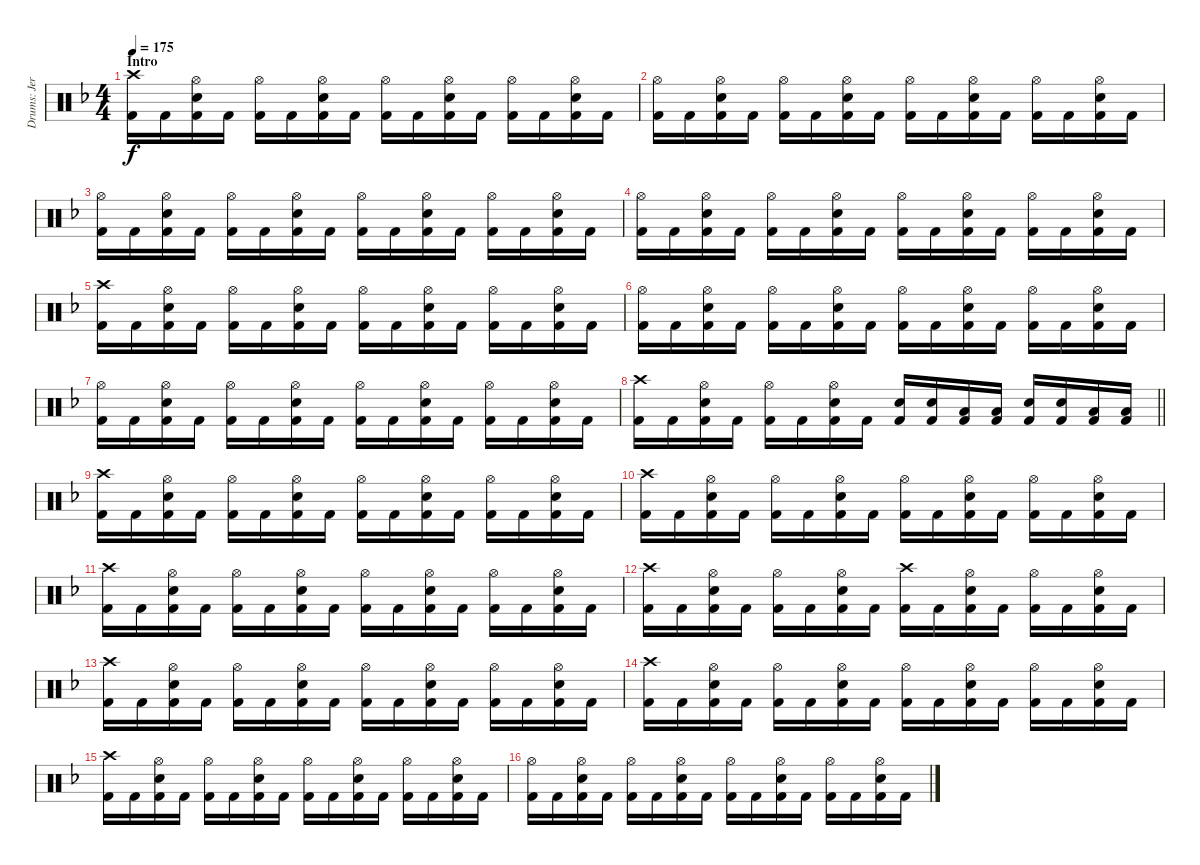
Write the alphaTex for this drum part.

\track ("Drums: Jere Luokkamäki" "Drums: Jer") {instrument percussion}
\staff {score}
\articulation defaults
\ts (4 4)
\section ("" "Intro")
\tempo 175
\clef neutral
\ks dminor
("Crash high (hit)" "Kick (hit) 2").16{dy f} "Kick (hit) 2".16 ("Hi-Hat (open)" "Electric Snare (hit)" "Kick (hit) 2").16 "Kick (hit) 2".16 ("Hi-Hat (open)" "Kick (hit) 2").16 "Kick (hit) 2".16 ("Hi-Hat (open)" "Electric Snare (hit)" "Kick (hit) 2").16 "Kick (hit) 2".16 ("Hi-Hat (open)" "Kick (hit) 2").16 "Kick (hit) 2".16 ("Hi-Hat (open)" "Electric Snare (hit)" "Kick (hit) 2").16 "Kick (hit) 2".16 ("Hi-Hat (open)" "Kick (hit) 2").16 "Kick (hit) 2".16 ("Hi-Hat (open)" "Electric Snare (hit)" "Kick (hit) 2").16 "Kick (hit) 2".16 |
("Hi-Hat (open)" "Kick (hit) 2").16 "Kick (hit) 2".16 ("Hi-Hat (open)" "Electric Snare (hit)" "Kick (hit) 2").16 "Kick (hit) 2".16 ("Hi-Hat (open)" "Kick (hit) 2").16 "Kick (hit) 2".16 ("Hi-Hat (open)" "Electric Snare (hit)" "Kick (hit) 2").16 "Kick (hit) 2".16 ("Hi-Hat (open)" "Kick (hit) 2").16 "Kick (hit) 2".16 ("Hi-Hat (open)" "Electric Snare (hit)" "Kick (hit) 2").16 "Kick (hit) 2".16 ("Hi-Hat (open)" "Kick (hit) 2").16 "Kick (hit) 2".16 ("Hi-Hat (open)" "Electric Snare (hit)" "Kick (hit) 2").16 "Kick (hit) 2".16 |
("Hi-Hat (open)" "Kick (hit) 2").16 "Kick (hit) 2".16 ("Hi-Hat (open)" "Electric Snare (hit)" "Kick (hit) 2").16 "Kick (hit) 2".16 ("Hi-Hat (open)" "Kick (hit) 2").16 "Kick (hit) 2".16 ("Hi-Hat (open)" "Electric Snare (hit)" "Kick (hit) 2").16 "Kick (hit) 2".16 ("Hi-Hat (open)" "Kick (hit) 2").16 "Kick (hit) 2".16 ("Hi-Hat (open)" "Electric Snare (hit)" "Kick (hit) 2").16 "Kick (hit) 2".16 ("Hi-Hat (open)" "Kick (hit) 2").16 "Kick (hit) 2".16 ("Hi-Hat (open)" "Electric Snare (hit)" "Kick (hit) 2").16 "Kick (hit) 2".16 |
("Hi-Hat (open)" "Kick (hit) 2").16 "Kick (hit) 2".16 ("Hi-Hat (open)" "Electric Snare (hit)" "Kick (hit) 2").16 "Kick (hit) 2".16 ("Hi-Hat (open)" "Kick (hit) 2").16 "Kick (hit) 2".16 ("Hi-Hat (open)" "Electric Snare (hit)" "Kick (hit) 2").16 "Kick (hit) 2".16 ("Hi-Hat (open)" "Kick (hit) 2").16 "Kick (hit) 2".16 ("Hi-Hat (open)" "Electric Snare (hit)" "Kick (hit) 2").16 "Kick (hit) 2".16 ("Hi-Hat (open)" "Kick (hit) 2").16 "Kick (hit) 2".16 ("Hi-Hat (open)" "Electric Snare (hit)" "Kick (hit) 2").16 "Kick (hit) 2".16 |
("Crash high (hit)" "Kick (hit) 2").16 "Kick (hit) 2".16 ("Hi-Hat (open)" "Electric Snare (hit)" "Kick (hit) 2").16 "Kick (hit) 2".16 ("Hi-Hat (open)" "Kick (hit) 2").16 "Kick (hit) 2".16 ("Hi-Hat (open)" "Electric Snare (hit)" "Kick (hit) 2").16 "Kick (hit) 2".16 ("Hi-Hat (open)" "Kick (hit) 2").16 "Kick (hit) 2".16 ("Hi-Hat (open)" "Electric Snare (hit)" "Kick (hit) 2").16 "Kick (hit) 2".16 ("Hi-Hat (open)" "Kick (hit) 2").16 "Kick (hit) 2".16 ("Hi-Hat (open)" "Electric Snare (hit)" "Kick (hit) 2").16 "Kick (hit) 2".16 |
("Hi-Hat (open)" "Kick (hit) 2").16 "Kick (hit) 2".16 ("Hi-Hat (open)" "Electric Snare (hit)" "Kick (hit) 2").16 "Kick (hit) 2".16 ("Hi-Hat (open)" "Kick (hit) 2").16 "Kick (hit) 2".16 ("Hi-Hat (open)" "Electric Snare (hit)" "Kick (hit) 2").16 "Kick (hit) 2".16 ("Hi-Hat (open)" "Kick (hit) 2").16 "Kick (hit) 2".16 ("Hi-Hat (open)" "Electric Snare (hit)" "Kick (hit) 2").16 "Kick (hit) 2".16 ("Hi-Hat (open)" "Kick (hit) 2").16 "Kick (hit) 2".16 ("Hi-Hat (open)" "Electric Snare (hit)" "Kick (hit) 2").16 "Kick (hit) 2".16 |
("Hi-Hat (open)" "Kick (hit) 2").16 "Kick (hit) 2".16 ("Hi-Hat (open)" "Electric Snare (hit)" "Kick (hit) 2").16 "Kick (hit) 2".16 ("Hi-Hat (open)" "Kick (hit) 2").16 "Kick (hit) 2".16 ("Hi-Hat (open)" "Electric Snare (hit)" "Kick (hit) 2").16 "Kick (hit) 2".16 ("Hi-Hat (open)" "Kick (hit) 2").16 "Kick (hit) 2".16 ("Hi-Hat (open)" "Electric Snare (hit)" "Kick (hit) 2").16 "Kick (hit) 2".16 ("Hi-Hat (open)" "Kick (hit) 2").16 "Kick (hit) 2".16 ("Hi-Hat (open)" "Electric Snare (hit)" "Kick (hit) 2").16 "Kick (hit) 2".16 |
\barLineRight lightlight
("Crash high (hit)" "Kick (hit) 2").16 "Kick (hit) 2".16 ("Hi-Hat (open)" "Electric Snare (hit)" "Kick (hit) 2").16 "Kick (hit) 2".16 ("Hi-Hat (open)" "Kick (hit) 2").16 "Kick (hit) 2".16 ("Hi-Hat (open)" "Electric Snare (hit)" "Kick (hit) 2").16 "Kick (hit) 2".16 ("Electric Snare (hit)" "Kick (hit) 2").16 ("Electric Snare (hit)" "Kick (hit) 2").16 ("Low Tom (hit)" "Kick (hit) 2").16 ("Low Tom (hit)" "Kick (hit) 2").16 ("Electric Snare (hit)" "Kick (hit) 2").16 ("Electric Snare (hit)" "Kick (hit) 2").16 ("Low Tom (hit)" "Kick (hit) 2").16 ("Low Tom (hit)" "Kick (hit) 2").16 |
("Crash high (hit)" "Kick (hit) 2").16 "Kick (hit) 2".16 ("Hi-Hat (open)" "Electric Snare (hit)" "Kick (hit) 2").16 "Kick (hit) 2".16 ("Hi-Hat (open)" "Kick (hit) 2").16 "Kick (hit) 2".16 ("Hi-Hat (open)" "Electric Snare (hit)" "Kick (hit) 2").16 "Kick (hit) 2".16 ("Hi-Hat (open)" "Kick (hit) 2").16 "Kick (hit) 2".16 ("Hi-Hat (open)" "Electric Snare (hit)" "Kick (hit) 2").16 "Kick (hit) 2".16 ("Hi-Hat (open)" "Kick (hit) 2").16 "Kick (hit) 2".16 ("Hi-Hat (open)" "Electric Snare (hit)" "Kick (hit) 2").16 "Kick (hit) 2".16 |
("Crash high (hit)" "Kick (hit) 2").16 "Kick (hit) 2".16 ("Hi-Hat (open)" "Electric Snare (hit)" "Kick (hit) 2").16 "Kick (hit) 2".16 ("Hi-Hat (open)" "Kick (hit) 2").16 "Kick (hit) 2".16 ("Hi-Hat (open)" "Electric Snare (hit)" "Kick (hit) 2").16 "Kick (hit) 2".16 ("Hi-Hat (open)" "Kick (hit) 2").16 "Kick (hit) 2".16 ("Hi-Hat (open)" "Electric Snare (hit)" "Kick (hit) 2").16 "Kick (hit) 2".16 ("Hi-Hat (open)" "Kick (hit) 2").16 "Kick (hit) 2".16 ("Hi-Hat (open)" "Electric Snare (hit)" "Kick (hit) 2").16 "Kick (hit) 2".16 |
("Crash high (hit)" "Kick (hit) 2").16 "Kick (hit) 2".16 ("Hi-Hat (open)" "Electric Snare (hit)" "Kick (hit) 2").16 "Kick (hit) 2".16 ("Hi-Hat (open)" "Kick (hit) 2").16 "Kick (hit) 2".16 ("Hi-Hat (open)" "Electric Snare (hit)" "Kick (hit) 2").16 "Kick (hit) 2".16 ("Hi-Hat (open)" "Kick (hit) 2").16 "Kick (hit) 2".16 ("Hi-Hat (open)" "Electric Snare (hit)" "Kick (hit) 2").16 "Kick (hit) 2".16 ("Hi-Hat (open)" "Kick (hit) 2").16 "Kick (hit) 2".16 ("Hi-Hat (open)" "Electric Snare (hit)" "Kick (hit) 2").16 "Kick (hit) 2".16 |
("Crash high (hit)" "Kick (hit) 2").16 "Kick (hit) 2".16 ("Hi-Hat (open)" "Electric Snare (hit)" "Kick (hit) 2").16 "Kick (hit) 2".16 ("Hi-Hat (open)" "Kick (hit) 2").16 "Kick (hit) 2".16 ("Hi-Hat (open)" "Electric Snare (hit)" "Kick (hit) 2").16 "Kick (hit) 2".16 ("Crash high (hit)" "Kick (hit) 2").16 "Kick (hit) 2".16 ("Hi-Hat (open)" "Electric Snare (hit)" "Kick (hit) 2").16 "Kick (hit) 2".16 ("Hi-Hat (open)" "Kick (hit) 2").16 "Kick (hit) 2".16 ("Hi-Hat (open)" "Electric Snare (hit)" "Kick (hit) 2").16 "Kick (hit) 2".16 |
("Crash high (hit)" "Kick (hit) 2").16 "Kick (hit) 2".16 ("Hi-Hat (open)" "Electric Snare (hit)" "Kick (hit) 2").16 "Kick (hit) 2".16 ("Hi-Hat (open)" "Kick (hit) 2").16 "Kick (hit) 2".16 ("Hi-Hat (open)" "Electric Snare (hit)" "Kick (hit) 2").16 "Kick (hit) 2".16 ("Hi-Hat (open)" "Kick (hit) 2").16 "Kick (hit) 2".16 ("Hi-Hat (open)" "Electric Snare (hit)" "Kick (hit) 2").16 "Kick (hit) 2".16 ("Hi-Hat (open)" "Kick (hit) 2").16 "Kick (hit) 2".16 ("Hi-Hat (open)" "Electric Snare (hit)" "Kick (hit) 2").16 "Kick (hit) 2".16 |
("Crash high (hit)" "Kick (hit) 2").16 "Kick (hit) 2".16 ("Hi-Hat (open)" "Electric Snare (hit)" "Kick (hit) 2").16 "Kick (hit) 2".16 ("Hi-Hat (open)" "Kick (hit) 2").16 "Kick (hit) 2".16 ("Hi-Hat (open)" "Electric Snare (hit)" "Kick (hit) 2").16 "Kick (hit) 2".16 ("Hi-Hat (open)" "Kick (hit) 2").16 "Kick (hit) 2".16 ("Hi-Hat (open)" "Electric Snare (hit)" "Kick (hit) 2").16 "Kick (hit) 2".16 ("Hi-Hat (open)" "Kick (hit) 2").16 "Kick (hit) 2".16 ("Hi-Hat (open)" "Electric Snare (hit)" "Kick (hit) 2").16 "Kick (hit) 2".16 |
("Crash high (hit)" "Kick (hit) 2").16 "Kick (hit) 2".16 ("Hi-Hat (open)" "Electric Snare (hit)" "Kick (hit) 2").16 "Kick (hit) 2".16 ("Hi-Hat (open)" "Kick (hit) 2").16 "Kick (hit) 2".16 ("Hi-Hat (open)" "Electric Snare (hit)" "Kick (hit) 2").16 "Kick (hit) 2".16 ("Hi-Hat (open)" "Kick (hit) 2").16 "Kick (hit) 2".16 ("Hi-Hat (open)" "Electric Snare (hit)" "Kick (hit) 2").16 "Kick (hit) 2".16 ("Hi-Hat (open)" "Kick (hit) 2").16 "Kick (hit) 2".16 ("Hi-Hat (open)" "Electric Snare (hit)" "Kick (hit) 2").16 "Kick (hit) 2".16 |
("Hi-Hat (open)" "Kick (hit) 2").16 "Kick (hit) 2".16 ("Hi-Hat (open)" "Electric Snare (hit)" "Kick (hit) 2").16 "Kick (hit) 2".16 ("Hi-Hat (open)" "Kick (hit) 2").16 "Kick (hit) 2".16 ("Hi-Hat (open)" "Electric Snare (hit)" "Kick (hit) 2").16 "Kick (hit) 2".16 ("Hi-Hat (open)" "Kick (hit) 2").16 "Kick (hit) 2".16 ("Hi-Hat (open)" "Electric Snare (hit)" "Kick (hit) 2").16 "Kick (hit) 2".16 ("Hi-Hat (open)" "Kick (hit) 2").16 "Kick (hit) 2".16 ("Hi-Hat (open)" "Electric Snare (hit)" "Kick (hit) 2").16 "Kick (hit) 2".16
